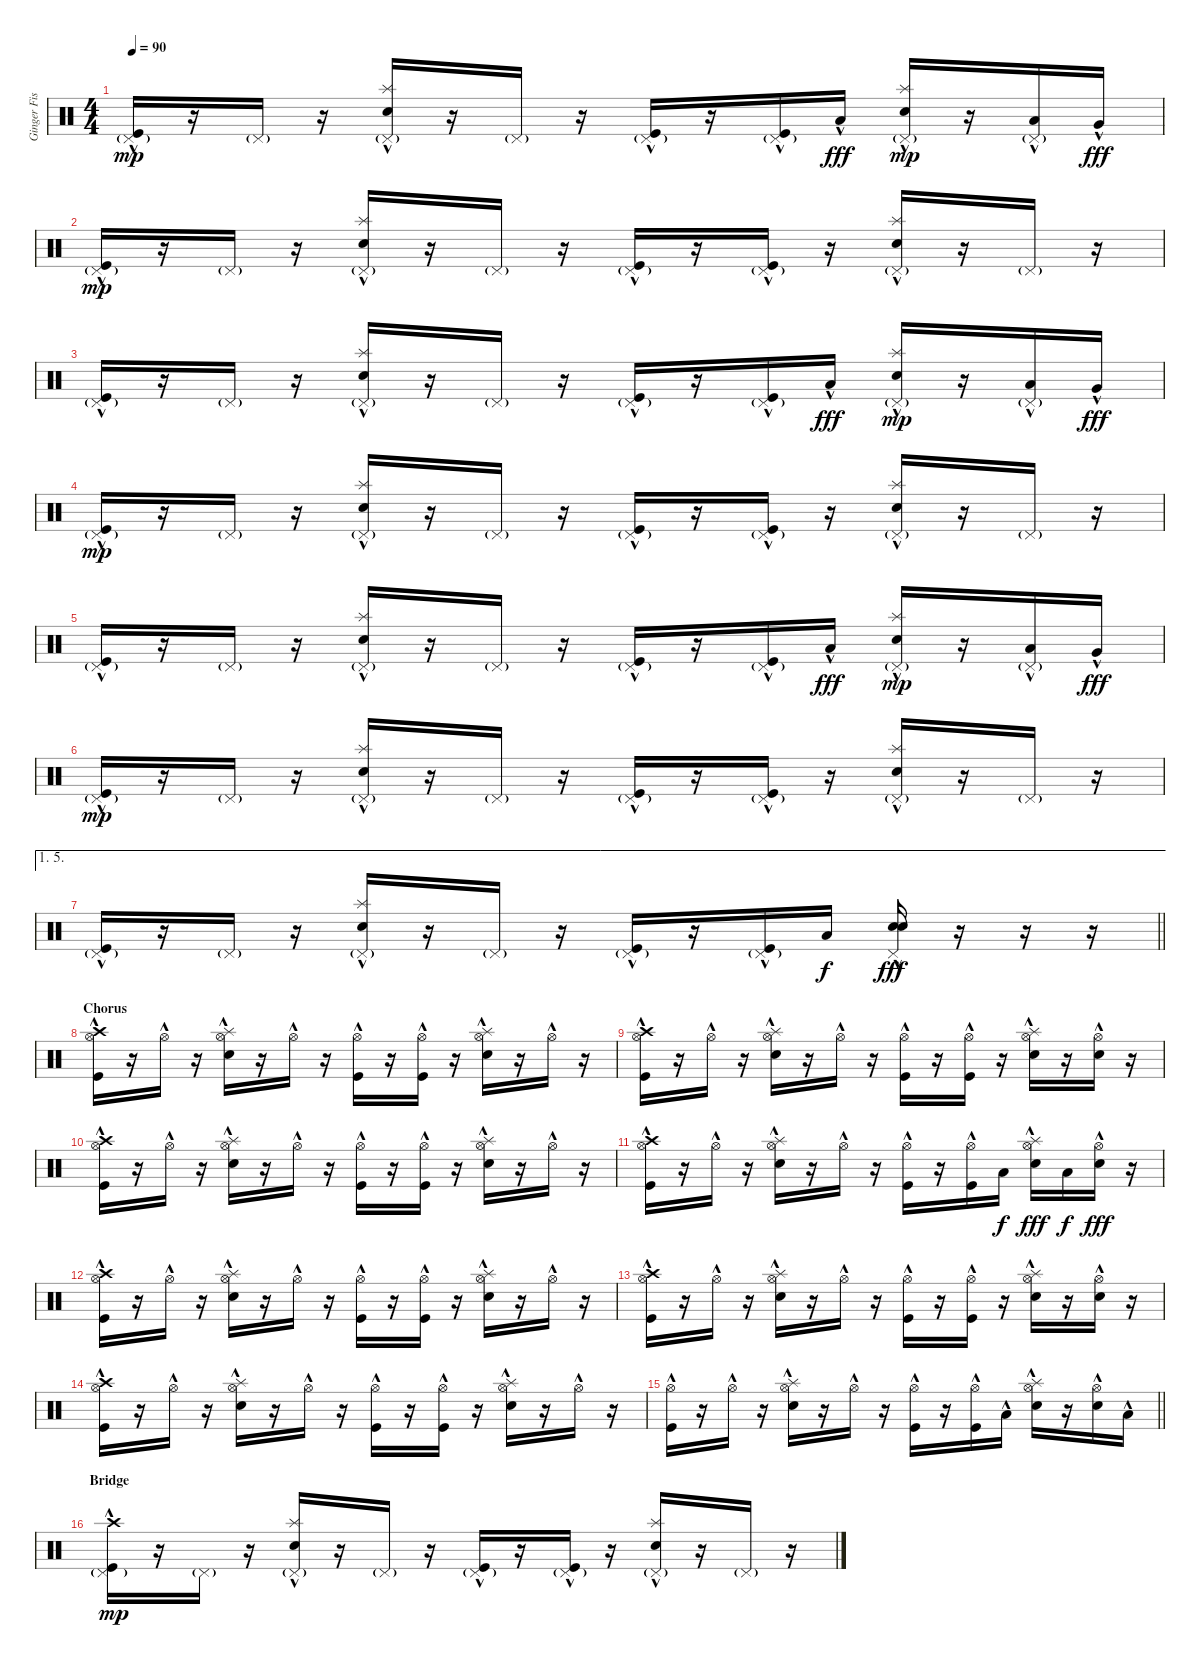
\track ("Ginger Fish" "Ginger Fis") {instrument percussion}
\staff {score}
\articulation defaults
\ts (4 4)
\tempo 90
\clef neutral
\ks c
("Kick (hit)"{hac} "Pedal Hi-Hat (hit)"{g}).16{dy mp} r.16 "Pedal Hi-Hat (hit)"{g}.16 r.16 ("Splash (hit)" "Electric Snare (hit)"{hac} "Pedal Hi-Hat (hit)"{g}).16 r.16 "Pedal Hi-Hat (hit)"{g}.16 r.16 ("Kick (hit)"{hac} "Pedal Hi-Hat (hit)"{g}).16 r.16 ("Kick (hit)"{hac} "Pedal Hi-Hat (hit)"{g}).16 "Low Tom (hit)"{hac}.16{dy fff} ("Splash (hit)" "Electric Snare (hit)"{hac} "Pedal Hi-Hat (hit)"{g}).16{dy mp} r.16 ("Low Floor Tom (hit)"{hac} "Pedal Hi-Hat (hit)"{g}).16 "Very Low Tom (hit)"{hac}.16{dy fff} |
("Kick (hit)"{hac} "Pedal Hi-Hat (hit)"{g}).16{dy mp} r.16 "Pedal Hi-Hat (hit)"{g}.16 r.16 ("Splash (hit)" "Electric Snare (hit)"{hac} "Pedal Hi-Hat (hit)"{g}).16 r.16 "Pedal Hi-Hat (hit)"{g}.16 r.16 ("Kick (hit)"{hac} "Pedal Hi-Hat (hit)"{g}).16 r.16 ("Kick (hit)"{hac} "Pedal Hi-Hat (hit)"{g}).16 r.16 ("Splash (hit)" "Electric Snare (hit)"{hac} "Pedal Hi-Hat (hit)"{g}).16 r.16 "Pedal Hi-Hat (hit)"{g}.16 r.16 |
("Kick (hit)"{hac} "Pedal Hi-Hat (hit)"{g}).16 r.16 "Pedal Hi-Hat (hit)"{g}.16 r.16 ("Splash (hit)" "Electric Snare (hit)"{hac} "Pedal Hi-Hat (hit)"{g}).16 r.16 "Pedal Hi-Hat (hit)"{g}.16 r.16 ("Kick (hit)"{hac} "Pedal Hi-Hat (hit)"{g}).16 r.16 ("Kick (hit)"{hac} "Pedal Hi-Hat (hit)"{g}).16 "Low Tom (hit)"{hac}.16{dy fff} ("Splash (hit)" "Electric Snare (hit)"{hac} "Pedal Hi-Hat (hit)"{g}).16{dy mp} r.16 ("Low Floor Tom (hit)"{hac} "Pedal Hi-Hat (hit)"{g}).16 "Very Low Tom (hit)"{hac}.16{dy fff} |
("Kick (hit)"{hac} "Pedal Hi-Hat (hit)"{g}).16{dy mp} r.16 "Pedal Hi-Hat (hit)"{g}.16 r.16 ("Splash (hit)" "Electric Snare (hit)"{hac} "Pedal Hi-Hat (hit)"{g}).16 r.16 "Pedal Hi-Hat (hit)"{g}.16 r.16 ("Kick (hit)"{hac} "Pedal Hi-Hat (hit)"{g}).16 r.16 ("Kick (hit)"{hac} "Pedal Hi-Hat (hit)"{g}).16 r.16 ("Splash (hit)" "Electric Snare (hit)"{hac} "Pedal Hi-Hat (hit)"{g}).16 r.16 "Pedal Hi-Hat (hit)"{g}.16 r.16 |
("Kick (hit)"{hac} "Pedal Hi-Hat (hit)"{g}).16 r.16 "Pedal Hi-Hat (hit)"{g}.16 r.16 ("Splash (hit)" "Electric Snare (hit)"{hac} "Pedal Hi-Hat (hit)"{g}).16 r.16 "Pedal Hi-Hat (hit)"{g}.16 r.16 ("Kick (hit)"{hac} "Pedal Hi-Hat (hit)"{g}).16 r.16 ("Kick (hit)"{hac} "Pedal Hi-Hat (hit)"{g}).16 "Low Tom (hit)"{hac}.16{dy fff} ("Splash (hit)" "Electric Snare (hit)"{hac} "Pedal Hi-Hat (hit)"{g}).16{dy mp} r.16 ("Low Floor Tom (hit)"{hac} "Pedal Hi-Hat (hit)"{g}).16 "Very Low Tom (hit)"{hac}.16{dy fff} |
("Kick (hit)"{hac} "Pedal Hi-Hat (hit)"{g}).16{dy mp} r.16 "Pedal Hi-Hat (hit)"{g}.16 r.16 ("Splash (hit)" "Electric Snare (hit)"{hac} "Pedal Hi-Hat (hit)"{g}).16 r.16 "Pedal Hi-Hat (hit)"{g}.16 r.16 ("Kick (hit)"{hac} "Pedal Hi-Hat (hit)"{g}).16 r.16 ("Kick (hit)"{hac} "Pedal Hi-Hat (hit)"{g}).16 r.16 ("Splash (hit)" "Electric Snare (hit)"{hac} "Pedal Hi-Hat (hit)"{g}).16 r.16 "Pedal Hi-Hat (hit)"{g}.16 r.16 |
\ae (1 5)
\barLineRight lightlight
("Kick (hit)"{hac} "Pedal Hi-Hat (hit)"{g}).16 r.16 "Pedal Hi-Hat (hit)"{g}.16 r.16 ("Splash (hit)" "Electric Snare (hit)"{hac} "Pedal Hi-Hat (hit)"{g}).16 r.16 "Pedal Hi-Hat (hit)"{g}.16 r.16 ("Kick (hit)"{hac} "Pedal Hi-Hat (hit)"{g}).16 r.16 ("Kick (hit)"{hac} "Pedal Hi-Hat (hit)"{g}).16 "Low Tom (hit)".16{dy f} ("Snare (hit) 2"{hac} "Electric Snare (hit)"{hac} "Pedal Hi-Hat (hit)"{hac}).16{dy fff} r.16 r.16 r.16 |
\section ("" "Chorus")
("Crash high (hit)" "Kick (hit)"{hac} "Hi-Hat (open)"{hac}).16 r.16 "Hi-Hat (open)"{hac}.16 r.16 ("Splash (hit)"{hac} "Electric Snare (hit)"{hac} "Hi-Hat (open)"{hac}).16 r.16 "Hi-Hat (open)"{hac}.16 r.16 ("Kick (hit)"{hac} "Hi-Hat (open)"{hac}).16 r.16 ("Kick (hit)"{hac} "Hi-Hat (open)"{hac}).16 r.16 ("Splash (hit)"{hac} "Electric Snare (hit)"{hac} "Hi-Hat (open)"{hac}).16 r.16 "Hi-Hat (open)"{hac}.16 r.16 |
("Crash high (hit)" "Kick (hit)"{hac} "Hi-Hat (open)"{hac}).16 r.16 "Hi-Hat (open)"{hac}.16 r.16 ("Splash (hit)"{hac} "Electric Snare (hit)"{hac} "Hi-Hat (open)"{hac}).16 r.16 "Hi-Hat (open)"{hac}.16 r.16 ("Kick (hit)"{hac} "Hi-Hat (open)"{hac}).16 r.16 ("Kick (hit)"{hac} "Hi-Hat (open)"{hac}).16 r.16 ("Splash (hit)"{hac} "Electric Snare (hit)"{hac} "Hi-Hat (open)"{hac}).16 r.16 ("Electric Snare (hit)"{hac} "Hi-Hat (open)"{hac}).16 r.16 |
("Crash high (hit)" "Kick (hit)"{hac} "Hi-Hat (open)"{hac}).16 r.16 "Hi-Hat (open)"{hac}.16 r.16 ("Splash (hit)"{hac} "Electric Snare (hit)"{hac} "Hi-Hat (open)"{hac}).16 r.16 "Hi-Hat (open)"{hac}.16 r.16 ("Kick (hit)"{hac} "Hi-Hat (open)"{hac}).16 r.16 ("Kick (hit)"{hac} "Hi-Hat (open)"{hac}).16 r.16 ("Splash (hit)"{hac} "Electric Snare (hit)"{hac} "Hi-Hat (open)"{hac}).16 r.16 "Hi-Hat (open)"{hac}.16 r.16 |
("Crash high (hit)" "Kick (hit)"{hac} "Hi-Hat (open)"{hac}).16 r.16 "Hi-Hat (open)"{hac}.16 r.16 ("Splash (hit)"{hac} "Electric Snare (hit)"{hac} "Hi-Hat (open)"{hac}).16 r.16 "Hi-Hat (open)"{hac}.16 r.16 ("Kick (hit)"{hac} "Hi-Hat (open)"{hac}).16 r.16 ("Kick (hit)"{hac} "Hi-Hat (open)"{hac}).16 "Low Tom (hit)".16{dy f} ("Splash (hit)"{hac} "Electric Snare (hit)"{hac} "Hi-Hat (open)"{hac}).16{dy fff} "Low Floor Tom (hit)".16{dy f} ("Electric Snare (hit)"{hac} "Hi-Hat (open)"{hac}).16{dy fff} r.16 |
("Crash high (hit)" "Kick (hit)"{hac} "Hi-Hat (open)"{hac}).16 r.16 "Hi-Hat (open)"{hac}.16 r.16 ("Splash (hit)"{hac} "Electric Snare (hit)"{hac} "Hi-Hat (open)"{hac}).16 r.16 "Hi-Hat (open)"{hac}.16 r.16 ("Kick (hit)"{hac} "Hi-Hat (open)"{hac}).16 r.16 ("Kick (hit)"{hac} "Hi-Hat (open)"{hac}).16 r.16 ("Splash (hit)"{hac} "Electric Snare (hit)"{hac} "Hi-Hat (open)"{hac}).16 r.16 "Hi-Hat (open)"{hac}.16 r.16 |
("Crash high (hit)" "Kick (hit)"{hac} "Hi-Hat (open)"{hac}).16 r.16 "Hi-Hat (open)"{hac}.16 r.16 ("Splash (hit)"{hac} "Electric Snare (hit)"{hac} "Hi-Hat (open)"{hac}).16 r.16 "Hi-Hat (open)"{hac}.16 r.16 ("Kick (hit)"{hac} "Hi-Hat (open)"{hac}).16 r.16 ("Kick (hit)"{hac} "Hi-Hat (open)"{hac}).16 r.16 ("Splash (hit)"{hac} "Electric Snare (hit)"{hac} "Hi-Hat (open)"{hac}).16 r.16 ("Electric Snare (hit)"{hac} "Hi-Hat (open)"{hac}).16 r.16 |
("Crash high (hit)" "Kick (hit)"{hac} "Hi-Hat (open)"{hac}).16 r.16 "Hi-Hat (open)"{hac}.16 r.16 ("Splash (hit)"{hac} "Electric Snare (hit)"{hac} "Hi-Hat (open)"{hac}).16 r.16 "Hi-Hat (open)"{hac}.16 r.16 ("Kick (hit)"{hac} "Hi-Hat (open)"{hac}).16 r.16 ("Kick (hit)"{hac} "Hi-Hat (open)"{hac}).16 r.16 ("Splash (hit)"{hac} "Electric Snare (hit)"{hac} "Hi-Hat (open)"{hac}).16 r.16 "Hi-Hat (open)"{hac}.16 r.16 |
\barLineRight lightlight
("Kick (hit)"{hac} "Hi-Hat (open)"{hac}).16 r.16 "Hi-Hat (open)"{hac}.16 r.16 ("Splash (hit)"{hac} "Electric Snare (hit)"{hac} "Hi-Hat (open)"{hac}).16 r.16 "Hi-Hat (open)"{hac}.16 r.16 ("Kick (hit)"{hac} "Hi-Hat (open)"{hac}).16 r.16 ("Kick (hit)"{hac} "Hi-Hat (open)"{hac}).16 "Low Tom (hit)"{hac}.16 ("Splash (hit)"{hac} "Electric Snare (hit)"{hac} "Hi-Hat (open)"{hac}).16 r.16 ("Electric Snare (hit)"{hac} "Hi-Hat (open)"{hac}).16 "Low Floor Tom (hit)"{hac}.16 |
\section ("" "Bridge")
("Crash high (hit)"{hac} "Kick (hit)"{hac} "Pedal Hi-Hat (hit)"{g}).16{dy mp} r.16 "Pedal Hi-Hat (hit)"{g}.16 r.16 ("Splash (hit)" "Electric Snare (hit)"{hac} "Pedal Hi-Hat (hit)"{g}).16 r.16 "Pedal Hi-Hat (hit)"{g}.16 r.16 ("Kick (hit)"{hac} "Pedal Hi-Hat (hit)"{g}).16 r.16 ("Kick (hit)"{hac} "Pedal Hi-Hat (hit)"{g}).16 r.16 ("Splash (hit)" "Electric Snare (hit)"{hac} "Pedal Hi-Hat (hit)"{g}).16 r.16 "Pedal Hi-Hat (hit)"{g}.16 r.16
